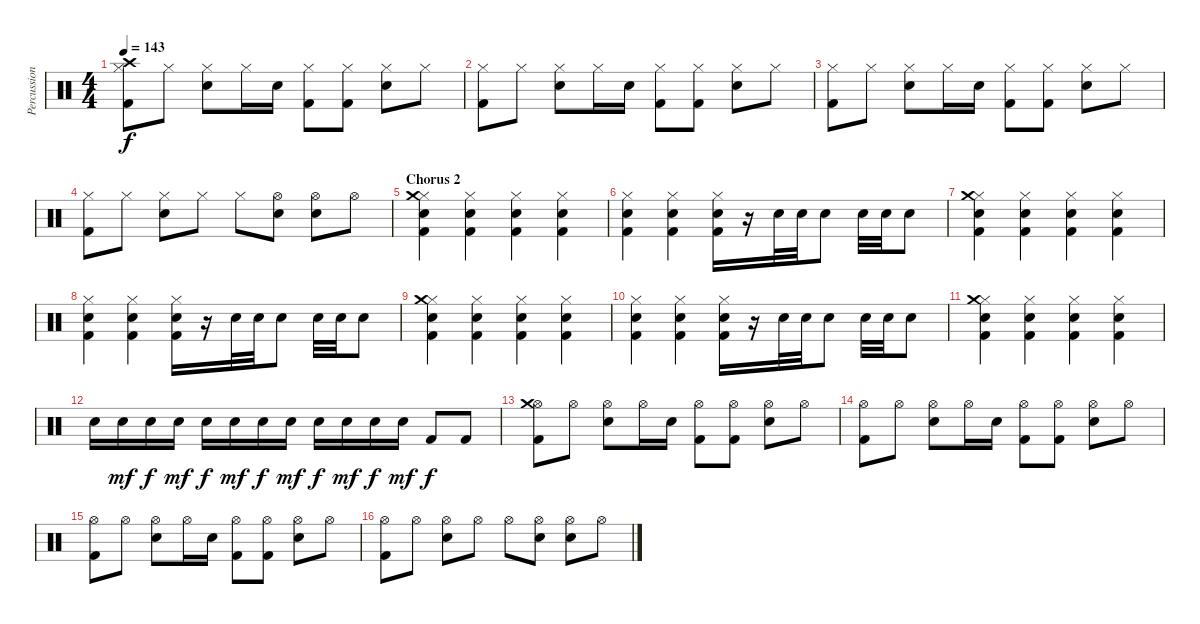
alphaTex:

\track ("Percussion" "Percussion") {instrument percussion}
\staff {score}
\articulation defaults
\ts (4 4)
\tempo 143
\clef neutral
\ks c
("Hi-Hat (closed)" "Crash high (hit)" "Kick (hit) 2").8{dy f} "Hi-Hat (closed)".8 ("Hi-Hat (closed)" "Electric Snare (hit)").8 "Hi-Hat (closed)".16 "Electric Snare (hit)".16 ("Hi-Hat (closed)" "Kick (hit) 2").8 ("Hi-Hat (closed)" "Kick (hit) 2").8 ("Hi-Hat (closed)" "Electric Snare (hit)").8 "Hi-Hat (closed)".8 |
("Hi-Hat (closed)" "Kick (hit) 2").8 "Hi-Hat (closed)".8 ("Hi-Hat (closed)" "Electric Snare (hit)").8 "Hi-Hat (closed)".16 "Electric Snare (hit)".16 ("Hi-Hat (closed)" "Kick (hit) 2").8 ("Hi-Hat (closed)" "Kick (hit) 2").8 ("Hi-Hat (closed)" "Electric Snare (hit)").8 "Hi-Hat (closed)".8 |
("Hi-Hat (closed)" "Kick (hit) 2").8 "Hi-Hat (closed)".8 ("Hi-Hat (closed)" "Electric Snare (hit)").8 "Hi-Hat (closed)".16 "Electric Snare (hit)".16 ("Hi-Hat (closed)" "Kick (hit) 2").8 ("Hi-Hat (closed)" "Kick (hit) 2").8 ("Hi-Hat (closed)" "Electric Snare (hit)").8 "Hi-Hat (closed)".8 |
("Hi-Hat (closed)" "Kick (hit) 2").8 "Hi-Hat (closed)".8 ("Hi-Hat (closed)" "Electric Snare (hit)").8 "Hi-Hat (closed)".8 "Hi-Hat (closed)".8 ("Hi-Hat (open)" "Electric Snare (hit)").8 ("Hi-Hat (open)" "Electric Snare (hit)").8 "Hi-Hat (open)".8 |
\section ("" "Chorus 2")
("Hi-Hat (closed)" "Crash medium (hit)" "Electric Snare (hit)" "Kick (hit) 2").4 ("Hi-Hat (closed)" "Electric Snare (hit)" "Kick (hit) 2").4 ("Hi-Hat (closed)" "Electric Snare (hit)" "Kick (hit) 2").4 ("Hi-Hat (closed)" "Electric Snare (hit)" "Kick (hit) 2").4 |
("Hi-Hat (closed)" "Electric Snare (hit)" "Kick (hit) 2").4 ("Hi-Hat (closed)" "Electric Snare (hit)" "Kick (hit) 2").4 ("Hi-Hat (closed)" "Electric Snare (hit)" "Kick (hit) 2").16 r.16 "Electric Snare (hit)".32 "Electric Snare (hit)".32 "Electric Snare (hit)".8 "Electric Snare (hit)".32 "Electric Snare (hit)".32 "Electric Snare (hit)".8 |
("Hi-Hat (closed)" "Crash medium (hit)" "Electric Snare (hit)" "Kick (hit) 2").4 ("Hi-Hat (closed)" "Electric Snare (hit)" "Kick (hit) 2").4 ("Hi-Hat (closed)" "Electric Snare (hit)" "Kick (hit) 2").4 ("Hi-Hat (closed)" "Electric Snare (hit)" "Kick (hit) 2").4 |
("Hi-Hat (closed)" "Electric Snare (hit)" "Kick (hit) 2").4 ("Hi-Hat (closed)" "Electric Snare (hit)" "Kick (hit) 2").4 ("Hi-Hat (closed)" "Electric Snare (hit)" "Kick (hit) 2").16 r.16 "Electric Snare (hit)".32 "Electric Snare (hit)".32 "Electric Snare (hit)".8 "Electric Snare (hit)".32 "Electric Snare (hit)".32 "Electric Snare (hit)".8 |
("Hi-Hat (closed)" "Crash medium (hit)" "Electric Snare (hit)" "Kick (hit) 2").4 ("Hi-Hat (closed)" "Electric Snare (hit)" "Kick (hit) 2").4 ("Hi-Hat (closed)" "Electric Snare (hit)" "Kick (hit) 2").4 ("Hi-Hat (closed)" "Electric Snare (hit)" "Kick (hit) 2").4 |
("Hi-Hat (closed)" "Electric Snare (hit)" "Kick (hit) 2").4 ("Hi-Hat (closed)" "Electric Snare (hit)" "Kick (hit) 2").4 ("Hi-Hat (closed)" "Electric Snare (hit)" "Kick (hit) 2").16 r.16 "Electric Snare (hit)".32 "Electric Snare (hit)".32 "Electric Snare (hit)".8 "Electric Snare (hit)".32 "Electric Snare (hit)".32 "Electric Snare (hit)".8 |
("Hi-Hat (closed)" "Crash medium (hit)" "Electric Snare (hit)" "Kick (hit) 2").4 ("Hi-Hat (closed)" "Electric Snare (hit)" "Kick (hit) 2").4 ("Hi-Hat (closed)" "Electric Snare (hit)" "Kick (hit) 2").4 ("Hi-Hat (closed)" "Electric Snare (hit)" "Kick (hit) 2").4 |
"Electric Snare (hit)".16 "Electric Snare (hit)".16{dy mf} "Electric Snare (hit)".16{dy f} "Electric Snare (hit)".16{dy mf} "Electric Snare (hit)".16{dy f} "Electric Snare (hit)".16{dy mf} "Electric Snare (hit)".16{dy f} "Electric Snare (hit)".16{dy mf} "Electric Snare (hit)".16{dy f} "Electric Snare (hit)".16{dy mf} "Electric Snare (hit)".16{dy f} "Electric Snare (hit)".16{dy mf} "Kick (hit) 2".8{dy f} "Kick (hit) 2".8 |
("Hi-Hat (open)" "Crash medium (hit)" "Kick (hit) 2").8 "Hi-Hat (open)".8 ("Hi-Hat (open)" "Electric Snare (hit)").8 "Hi-Hat (open)".16 "Electric Snare (hit)".16 ("Hi-Hat (open)" "Kick (hit) 2").8 ("Hi-Hat (open)" "Kick (hit) 2").8 ("Hi-Hat (open)" "Electric Snare (hit)").8 "Hi-Hat (open)".8 |
("Hi-Hat (open)" "Kick (hit) 2").8 "Hi-Hat (open)".8 ("Hi-Hat (open)" "Electric Snare (hit)").8 "Hi-Hat (open)".16 "Electric Snare (hit)".16 ("Hi-Hat (open)" "Kick (hit) 2").8 ("Hi-Hat (open)" "Kick (hit) 2").8 ("Hi-Hat (open)" "Electric Snare (hit)").8 "Hi-Hat (open)".8 |
("Hi-Hat (open)" "Kick (hit) 2").8 "Hi-Hat (open)".8 ("Hi-Hat (open)" "Electric Snare (hit)").8 "Hi-Hat (open)".16 "Electric Snare (hit)".16 ("Hi-Hat (open)" "Kick (hit) 2").8 ("Hi-Hat (open)" "Kick (hit) 2").8 ("Hi-Hat (open)" "Electric Snare (hit)").8 "Hi-Hat (open)".8 |
("Hi-Hat (open)" "Kick (hit) 2").8 "Hi-Hat (open)".8 ("Hi-Hat (open)" "Electric Snare (hit)").8 "Hi-Hat (open)".8 "Hi-Hat (open)".8 ("Hi-Hat (open)" "Electric Snare (hit)").8 ("Hi-Hat (open)" "Electric Snare (hit)").8 "Hi-Hat (open)".8
